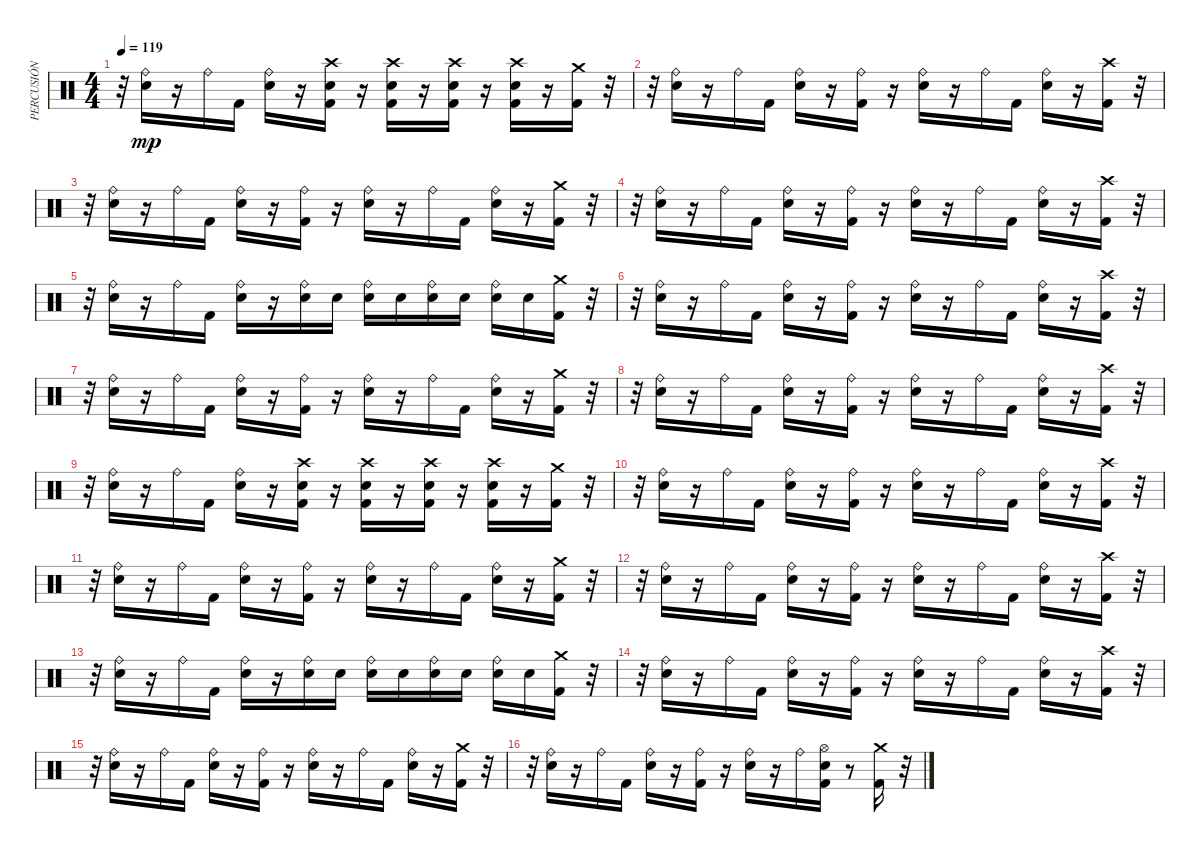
\track ("PERCUSIÓN" "PERCUSIÓN") {instrument percussion}
\staff {score}
\articulation defaults
\ts (4 4)
\tempo 119
\clef neutral
\ks c
r.32{dy mp} ("Snare (hit) 2" "Ride (bell)").16 r.16 "Ride (bell)".16 "Kick (hit) 2".16 ("Snare (hit) 2" "Ride (bell)").16 r.16 ("Kick (hit) 2" "Snare (hit) 2" "Crash high (hit)").16 r.16 ("Snare (hit) 2" "Kick (hit) 2" "Crash high (hit)").16 r.16 ("Snare (hit) 2" "Kick (hit) 2" "Crash high (hit)").16 r.16 ("Snare (hit) 2" "Kick (hit) 2" "Crash high (hit)").16 r.16 ("Kick (hit) 2" "Crash medium (hit)").16 r.32 |
r.32 ("Snare (hit) 2" "Ride (bell)").16 r.16 "Ride (bell)".16 "Kick (hit) 2".16 ("Snare (hit) 2" "Ride (bell)").16 r.16 ("Kick (hit) 2" "Ride (bell)").16 r.16 ("Snare (hit) 2" "Ride (bell)").16 r.16 "Ride (bell)".16 "Kick (hit) 2".16 ("Snare (hit) 2" "Ride (bell)").16 r.16 ("Crash high (hit)" "Kick (hit) 2").16 r.32 |
r.32 ("Snare (hit) 2" "Ride (bell)").16 r.16 "Ride (bell)".16 "Kick (hit) 2".16 ("Snare (hit) 2" "Ride (bell)").16 r.16 ("Kick (hit) 2" "Ride (bell)").16 r.16 ("Snare (hit) 2" "Ride (bell)").16 r.16 "Ride (bell)".16 "Kick (hit) 2".16 ("Snare (hit) 2" "Ride (bell)").16 r.16 ("Kick (hit) 2" "Crash medium (hit)").16 r.32 |
r.32 ("Snare (hit) 2" "Ride (bell)").16 r.16 "Ride (bell)".16 "Kick (hit) 2".16 ("Snare (hit) 2" "Ride (bell)").16 r.16 ("Kick (hit) 2" "Ride (bell)").16 r.16 ("Snare (hit) 2" "Ride (bell)").16 r.16 "Ride (bell)".16 "Kick (hit) 2".16 ("Snare (hit) 2" "Ride (bell)").16 r.16 ("Crash high (hit)" "Kick (hit) 2").16 r.32 |
r.32 ("Snare (hit) 2" "Ride (bell)").16 r.16 "Ride (bell)".16 "Kick (hit) 2".16 ("Snare (hit) 2" "Ride (bell)").16 r.16 ("Ride (bell)" "Snare (hit) 2").16 "Snare (hit) 2".16 ("Ride (bell)" "Snare (hit) 2").16 "Snare (hit) 2".16 ("Ride (bell)" "Snare (hit) 2").16 "Snare (hit) 2".16 ("Snare (hit) 2" "Ride (bell)").16 "Snare (hit) 2".16 ("Kick (hit) 2" "Crash medium (hit)").16 r.32 |
r.32 ("Snare (hit) 2" "Ride (bell)").16 r.16 "Ride (bell)".16 "Kick (hit) 2".16 ("Snare (hit) 2" "Ride (bell)").16 r.16 ("Kick (hit) 2" "Ride (bell)").16 r.16 ("Snare (hit) 2" "Ride (bell)").16 r.16 "Ride (bell)".16 "Kick (hit) 2".16 ("Snare (hit) 2" "Ride (bell)").16 r.16 ("Crash high (hit)" "Kick (hit) 2").16 r.32 |
r.32 ("Snare (hit) 2" "Ride (bell)").16 r.16 "Ride (bell)".16 "Kick (hit) 2".16 ("Snare (hit) 2" "Ride (bell)").16 r.16 ("Kick (hit) 2" "Ride (bell)").16 r.16 ("Snare (hit) 2" "Ride (bell)").16 r.16 "Ride (bell)".16 "Kick (hit) 2".16 ("Snare (hit) 2" "Ride (bell)").16 r.16 ("Kick (hit) 2" "Crash medium (hit)").16 r.32 |
r.32 ("Snare (hit) 2" "Ride (bell)").16 r.16 "Ride (bell)".16 "Kick (hit) 2".16 ("Snare (hit) 2" "Ride (bell)").16 r.16 ("Kick (hit) 2" "Ride (bell)").16 r.16 ("Snare (hit) 2" "Ride (bell)").16 r.16 "Ride (bell)".16 "Kick (hit) 2".16 ("Snare (hit) 2" "Ride (bell)").16 r.16 ("Crash high (hit)" "Kick (hit) 2").16 r.32 |
r.32 ("Snare (hit) 2" "Ride (bell)").16 r.16 "Ride (bell)".16 "Kick (hit) 2".16 ("Snare (hit) 2" "Ride (bell)").16 r.16 ("Kick (hit) 2" "Snare (hit) 2" "Crash high (hit)").16 r.16 ("Snare (hit) 2" "Kick (hit) 2" "Crash high (hit)").16 r.16 ("Snare (hit) 2" "Kick (hit) 2" "Crash high (hit)").16 r.16 ("Snare (hit) 2" "Kick (hit) 2" "Crash high (hit)").16 r.16 ("Kick (hit) 2" "Crash medium (hit)").16 r.32 |
r.32 ("Snare (hit) 2" "Ride (bell)").16 r.16 "Ride (bell)".16 "Kick (hit) 2".16 ("Snare (hit) 2" "Ride (bell)").16 r.16 ("Kick (hit) 2" "Ride (bell)").16 r.16 ("Snare (hit) 2" "Ride (bell)").16 r.16 "Ride (bell)".16 "Kick (hit) 2".16 ("Snare (hit) 2" "Ride (bell)").16 r.16 ("Crash high (hit)" "Kick (hit) 2").16 r.32 |
r.32 ("Snare (hit) 2" "Ride (bell)").16 r.16 "Ride (bell)".16 "Kick (hit) 2".16 ("Snare (hit) 2" "Ride (bell)").16 r.16 ("Kick (hit) 2" "Ride (bell)").16 r.16 ("Snare (hit) 2" "Ride (bell)").16 r.16 "Ride (bell)".16 "Kick (hit) 2".16 ("Snare (hit) 2" "Ride (bell)").16 r.16 ("Kick (hit) 2" "Crash medium (hit)").16 r.32 |
r.32 ("Snare (hit) 2" "Ride (bell)").16 r.16 "Ride (bell)".16 "Kick (hit) 2".16 ("Snare (hit) 2" "Ride (bell)").16 r.16 ("Kick (hit) 2" "Ride (bell)").16 r.16 ("Snare (hit) 2" "Ride (bell)").16 r.16 "Ride (bell)".16 "Kick (hit) 2".16 ("Snare (hit) 2" "Ride (bell)").16 r.16 ("Crash high (hit)" "Kick (hit) 2").16 r.32 |
r.32 ("Snare (hit) 2" "Ride (bell)").16 r.16 "Ride (bell)".16 "Kick (hit) 2".16 ("Snare (hit) 2" "Ride (bell)").16 r.16 ("Ride (bell)" "Snare (hit) 2").16 "Snare (hit) 2".16 ("Ride (bell)" "Snare (hit) 2").16 "Snare (hit) 2".16 ("Ride (bell)" "Snare (hit) 2").16 "Snare (hit) 2".16 ("Snare (hit) 2" "Ride (bell)").16 "Snare (hit) 2".16 ("Kick (hit) 2" "Crash medium (hit)").16 r.32 |
r.32 ("Snare (hit) 2" "Ride (bell)").16 r.16 "Ride (bell)".16 "Kick (hit) 2".16 ("Snare (hit) 2" "Ride (bell)").16 r.16 ("Kick (hit) 2" "Ride (bell)").16 r.16 ("Snare (hit) 2" "Ride (bell)").16 r.16 "Ride (bell)".16 "Kick (hit) 2".16 ("Snare (hit) 2" "Ride (bell)").16 r.16 ("Crash high (hit)" "Kick (hit) 2").16 r.32 |
r.32 ("Snare (hit) 2" "Ride (bell)").16 r.16 "Ride (bell)".16 "Kick (hit) 2".16 ("Snare (hit) 2" "Ride (bell)").16 r.16 ("Kick (hit) 2" "Ride (bell)").16 r.16 ("Snare (hit) 2" "Ride (bell)").16 r.16 "Ride (bell)".16 "Kick (hit) 2".16 ("Snare (hit) 2" "Ride (bell)").16 r.16 ("Kick (hit) 2" "Crash medium (hit)").16 r.32 |
r.32 ("Snare (hit) 2" "Ride (bell)").16 r.16 "Ride (bell)".16 "Kick (hit) 2".16 ("Snare (hit) 2" "Ride (bell)").16 r.16 ("Kick (hit) 2" "Ride (bell)").16 r.16 ("Snare (hit) 2" "Ride (bell)").16 r.16 "Ride (bell)".16 ("Kick (hit) 2" "Snare (hit) 2" "Hi-Hat (open)").16 r.8 ("Kick (hit) 2" "Crash medium (hit)").16 r.32
